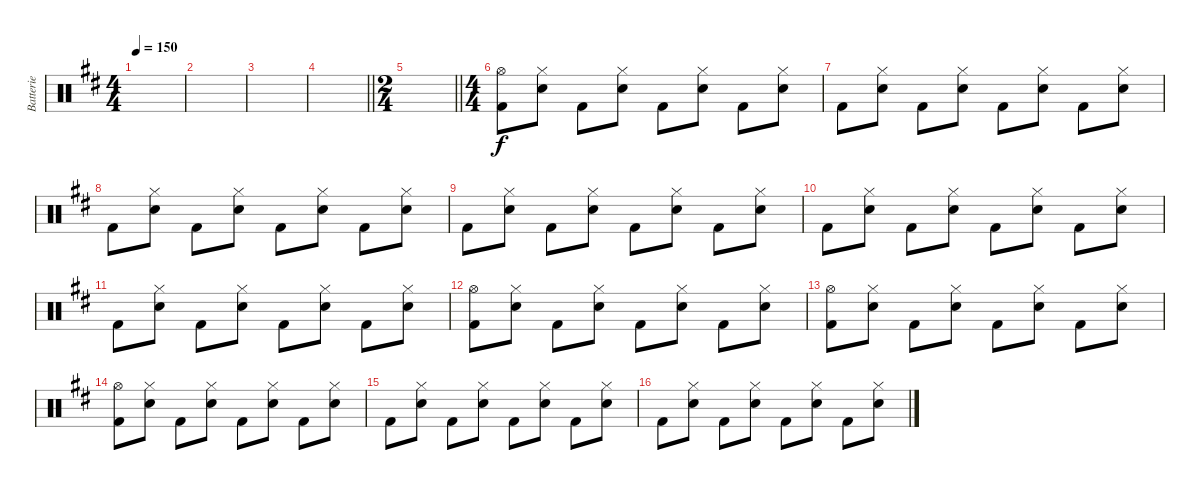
\track ("Batterie" "Batterie") {instrument percussion}
\staff {score}
\articulation defaults
\ts (4 4)
\tempo 150
\clef neutral
\ks d
|
|
|
\barLineRight lightlight
|
\ts (2 4)
\barLineRight lightlight
|
\ts (4 4)
("Hi-Hat (open)" "Kick (hit) 2").8 ("Hi-Hat (closed)" "Snare (hit) 2").8 "Kick (hit) 2".8 ("Hi-Hat (closed)" "Snare (hit) 2").8 "Kick (hit) 2".8 ("Hi-Hat (closed)" "Snare (hit) 2").8 "Kick (hit) 2".8 ("Hi-Hat (closed)" "Snare (hit) 2").8 |
"Kick (hit) 2".8 ("Hi-Hat (closed)" "Snare (hit) 2").8 "Kick (hit) 2".8 ("Hi-Hat (closed)" "Snare (hit) 2").8 "Kick (hit) 2".8 ("Hi-Hat (closed)" "Snare (hit) 2").8 "Kick (hit) 2".8 ("Hi-Hat (closed)" "Snare (hit) 2").8 |
"Kick (hit) 2".8 ("Hi-Hat (closed)" "Snare (hit) 2").8 "Kick (hit) 2".8 ("Hi-Hat (closed)" "Snare (hit) 2").8 "Kick (hit) 2".8 ("Hi-Hat (closed)" "Snare (hit) 2").8 "Kick (hit) 2".8 ("Hi-Hat (closed)" "Snare (hit) 2").8 |
"Kick (hit) 2".8 ("Hi-Hat (closed)" "Snare (hit) 2").8 "Kick (hit) 2".8 ("Hi-Hat (closed)" "Snare (hit) 2").8 "Kick (hit) 2".8 ("Hi-Hat (closed)" "Snare (hit) 2").8 "Kick (hit) 2".8 ("Hi-Hat (closed)" "Snare (hit) 2").8 |
"Kick (hit) 2".8 ("Hi-Hat (closed)" "Snare (hit) 2").8 "Kick (hit) 2".8 ("Hi-Hat (closed)" "Snare (hit) 2").8 "Kick (hit) 2".8 ("Hi-Hat (closed)" "Snare (hit) 2").8 "Kick (hit) 2".8 ("Hi-Hat (closed)" "Snare (hit) 2").8 |
"Kick (hit) 2".8 ("Hi-Hat (closed)" "Snare (hit) 2").8 "Kick (hit) 2".8 ("Hi-Hat (closed)" "Snare (hit) 2").8 "Kick (hit) 2".8 ("Hi-Hat (closed)" "Snare (hit) 2").8 "Kick (hit) 2".8 ("Hi-Hat (closed)" "Snare (hit) 2").8 |
("Hi-Hat (open)" "Kick (hit) 2").8 ("Hi-Hat (closed)" "Snare (hit) 2").8 "Kick (hit) 2".8 ("Hi-Hat (closed)" "Snare (hit) 2").8 "Kick (hit) 2".8 ("Hi-Hat (closed)" "Snare (hit) 2").8 "Kick (hit) 2".8 ("Hi-Hat (closed)" "Snare (hit) 2").8 |
("Hi-Hat (open)" "Kick (hit) 2").8 ("Hi-Hat (closed)" "Snare (hit) 2").8 "Kick (hit) 2".8 ("Hi-Hat (closed)" "Snare (hit) 2").8 "Kick (hit) 2".8 ("Hi-Hat (closed)" "Snare (hit) 2").8 "Kick (hit) 2".8 ("Hi-Hat (closed)" "Snare (hit) 2").8 |
("Hi-Hat (open)" "Kick (hit) 2").8 ("Hi-Hat (closed)" "Snare (hit) 2").8 "Kick (hit) 2".8 ("Hi-Hat (closed)" "Snare (hit) 2").8 "Kick (hit) 2".8 ("Hi-Hat (closed)" "Snare (hit) 2").8 "Kick (hit) 2".8 ("Hi-Hat (closed)" "Snare (hit) 2").8 |
"Kick (hit) 2".8 ("Hi-Hat (closed)" "Snare (hit) 2").8 "Kick (hit) 2".8 ("Hi-Hat (closed)" "Snare (hit) 2").8 "Kick (hit) 2".8 ("Hi-Hat (closed)" "Snare (hit) 2").8 "Kick (hit) 2".8 ("Hi-Hat (closed)" "Snare (hit) 2").8 |
"Kick (hit) 2".8 ("Hi-Hat (closed)" "Snare (hit) 2").8 "Kick (hit) 2".8 ("Hi-Hat (closed)" "Snare (hit) 2").8 "Kick (hit) 2".8 ("Hi-Hat (closed)" "Snare (hit) 2").8 "Kick (hit) 2".8 ("Hi-Hat (closed)" "Snare (hit) 2").8
